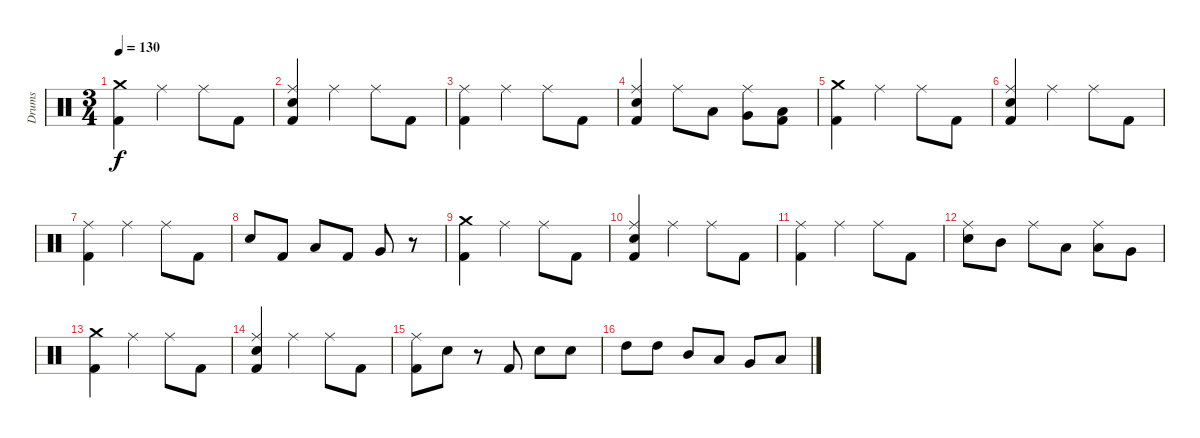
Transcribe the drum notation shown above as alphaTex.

\track ("Drums" "Drums") {instrument percussion}
\staff {score}
\articulation defaults
\ts (3 4)
\tempo 130
\clef neutral
\ks c
("Crash medium (hit)" "Kick (hit) 2").4{dy f} "Ride (middle)".4 "Ride (middle)".8 "Kick (hit) 2".8 |
("Ride (middle)" "Electric Snare (hit)" "Kick (hit) 2").4 "Ride (middle)".4 "Ride (middle)".8 "Kick (hit) 2".8 |
("Ride (middle)" "Kick (hit) 2").4 "Ride (middle)".4 "Ride (middle)".8 "Kick (hit) 2".8 |
("Ride (middle)" "Electric Snare (hit)" "Kick (hit) 2").4 "Ride (middle)".8 "Low Tom (hit)".8 ("Ride (middle)" "Very Low Tom (hit)").8 ("Low Floor Tom (hit)" "Kick (hit) 2").8 |
("Crash medium (hit)" "Kick (hit) 2").4 "Ride (middle)".4 "Ride (middle)".8 "Kick (hit) 2".8 |
("Ride (middle)" "Electric Snare (hit)" "Kick (hit) 2").4 "Ride (middle)".4 "Ride (middle)".8 "Kick (hit) 2".8 |
("Ride (middle)" "Kick (hit) 2").4 "Ride (middle)".4 "Ride (middle)".8 "Kick (hit) 2".8 |
"Electric Snare (hit)".8 "Kick (hit) 2".8 "Low Tom (hit)".8 "Kick (hit) 2".8 "Very Low Tom (hit)".8 r.8 |
("Crash medium (hit)" "Kick (hit) 2").4 "Ride (middle)".4 "Ride (middle)".8 "Kick (hit) 2".8 |
("Ride (middle)" "Electric Snare (hit)" "Kick (hit) 2").4 "Ride (middle)".4 "Ride (middle)".8 "Kick (hit) 2".8 |
("Ride (middle)" "Kick (hit) 2").4 "Ride (middle)".4 "Ride (middle)".8 "Kick (hit) 2".8 |
("Ride (middle)" "Electric Snare (hit)").8 "Mid Tom (hit)".8 "Ride (middle)".8 "Low Tom (hit)".8 ("Ride (middle)" "Low Tom (hit)").8 "Very Low Tom (hit)".8 |
("Crash medium (hit)" "Kick (hit) 2").4 "Ride (middle)".4 "Ride (middle)".8 "Kick (hit) 2".8 |
("Ride (middle)" "Electric Snare (hit)" "Kick (hit) 2").4 "Ride (middle)".4 "Ride (middle)".8 "Kick (hit) 2".8 |
("Ride (middle)" "Kick (hit) 2").8 "Electric Snare (hit)".8 r.8 "Kick (hit) 2".8 "Electric Snare (hit)".8 "Electric Snare (hit)".8 |
"High Tom (hit)".8 "High Tom (hit)".8 "Mid Tom (hit)".8 "Low Tom (hit)".8 "Very Low Tom (hit)".8 "Low Floor Tom (hit)".8
